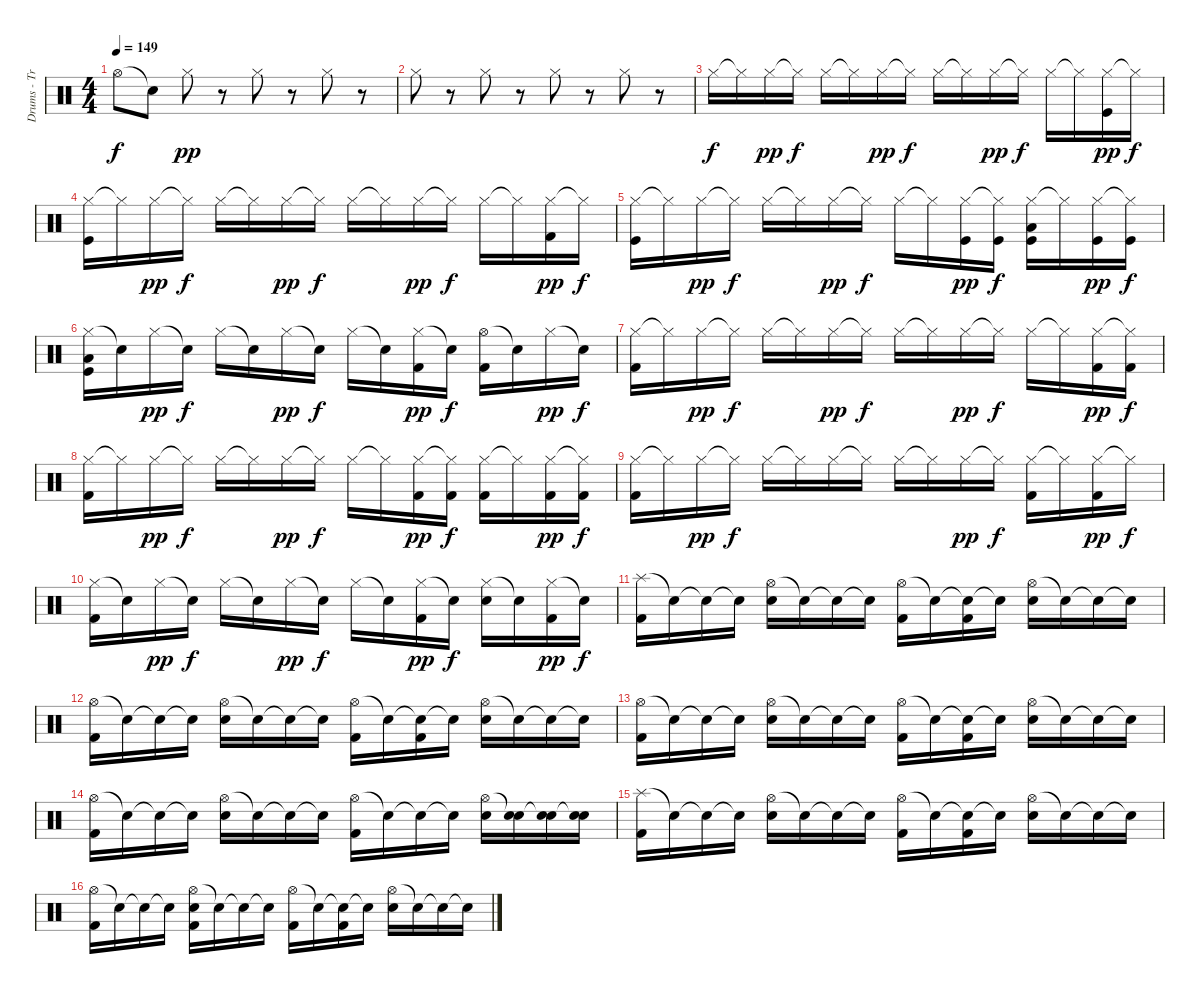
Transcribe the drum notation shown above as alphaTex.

\track ("Drums - Travis Barker" "Drums - Tr") {instrument percussion}
\staff {score}
\articulation defaults
\ts (4 4)
\tempo 149
\clef neutral
\ks c "Hi-Hat (open)".8{dy f} "Snare (hit)"{t}.8 "Hi-Hat (closed)".8{dy pp}
r.8 "Hi-Hat (closed)".8 r.8 "Hi-Hat (closed)".8 r.8 |
"Hi-Hat (closed)".8 r.8 "Hi-Hat (closed)".8 r.8 "Hi-Hat (closed)".8 r.8 "Hi-Hat (closed)".8 r.8 |
"Hi-Hat (closed)".16{dy f} "Hi-Hat (closed)"{t}.16 "Hi-Hat (closed)".16{dy pp} "Hi-Hat (closed)"{t}.16{dy f} "Hi-Hat (closed)".16 "Hi-Hat (closed)"{t}.16 "Hi-Hat (closed)".16{dy pp} "Hi-Hat (closed)"{t}.16{dy f} "Hi-Hat (closed)".16 "Hi-Hat (closed)"{t}.16 "Hi-Hat (closed)".16{dy pp} "Hi-Hat (closed)"{t}.16{dy f} "Hi-Hat (closed)".16 "Hi-Hat (closed)"{t}.16 ("Hi-Hat (closed)" "Kick (hit)").16{dy pp} "Hi-Hat (closed)"{t}.16{dy f} |
("Hi-Hat (closed)" "Kick (hit)").16 "Hi-Hat (closed)"{t}.16 "Hi-Hat (closed)".16{dy pp} "Hi-Hat (closed)"{t}.16{dy f} "Hi-Hat (closed)".16 "Hi-Hat (closed)"{t}.16 "Hi-Hat (closed)".16{dy pp} "Hi-Hat (closed)"{t}.16{dy f} "Hi-Hat (closed)".16 "Hi-Hat (closed)"{t}.16 "Hi-Hat (closed)".16{dy pp} "Hi-Hat (closed)"{t}.16{dy f} "Hi-Hat (closed)".16 "Hi-Hat (closed)"{t}.16 ("Hi-Hat (closed)" "Kick (hit) 2").16{dy pp} "Hi-Hat (closed)"{t}.16{dy f} |
("Hi-Hat (closed)" "Kick (hit)").16 "Hi-Hat (closed)"{t}.16 "Hi-Hat (closed)".16{dy pp} "Hi-Hat (closed)"{t}.16{dy f} "Hi-Hat (closed)".16 "Hi-Hat (closed)"{t}.16 "Hi-Hat (closed)".16{dy pp} "Hi-Hat (closed)"{t}.16{dy f} "Hi-Hat (closed)".16 "Hi-Hat (closed)"{t}.16 ("Hi-Hat (closed)" "Kick (hit)").16{dy pp} ("Hi-Hat (closed)"{t} "Kick (hit)").16{dy f} ("Hi-Hat (closed)" "Low Tom (hit)" "Kick (hit)").16 "Hi-Hat (closed)"{t}.16 ("Hi-Hat (closed)" "Kick (hit)").16{dy pp} ("Hi-Hat (closed)"{t} "Kick (hit)").16{dy f} |
("Hi-Hat (closed)" "Low Tom (hit)" "Kick (hit)").16 "Snare (hit)"{t}.16 "Hi-Hat (closed)".16{dy pp} "Snare (hit)"{t}.16{dy f} "Hi-Hat (closed)".16 "Snare (hit)"{t}.16 "Hi-Hat (closed)".16{dy pp} "Snare (hit)"{t}.16{dy f} "Hi-Hat (closed)".16 "Snare (hit)"{t}.16 ("Hi-Hat (closed)" "Kick (hit) 2").16{dy pp} "Snare (hit)"{t}.16{dy f} ("Hi-Hat (open)" "Kick (hit) 2").16 "Snare (hit)"{t}.16 "Hi-Hat (closed)".16{dy pp} "Snare (hit)"{t}.16{dy f} |
("Hi-Hat (closed)" "Kick (hit) 2").16 "Hi-Hat (closed)"{t}.16 "Hi-Hat (closed)".16{dy pp} "Hi-Hat (closed)"{t}.16{dy f} "Hi-Hat (closed)".16 "Hi-Hat (closed)"{t}.16 "Hi-Hat (closed)".16{dy pp} "Hi-Hat (closed)"{t}.16{dy f} "Hi-Hat (closed)".16 "Hi-Hat (closed)"{t}.16 "Hi-Hat (closed)".16{dy pp} "Hi-Hat (closed)"{t}.16{dy f} "Hi-Hat (closed)".16 "Hi-Hat (closed)"{t}.16 ("Hi-Hat (closed)" "Kick (hit) 2").16{dy pp} ("Hi-Hat (closed)"{t} "Kick (hit) 2").16{dy f} |
("Hi-Hat (closed)" "Kick (hit) 2").16 "Hi-Hat (closed)"{t}.16 "Hi-Hat (closed)".16{dy pp} "Hi-Hat (closed)"{t}.16{dy f} "Hi-Hat (closed)".16 "Hi-Hat (closed)"{t}.16 "Hi-Hat (closed)".16{dy pp} "Hi-Hat (closed)"{t}.16{dy f} "Hi-Hat (closed)".16 "Hi-Hat (closed)"{t}.16 ("Hi-Hat (closed)" "Kick (hit) 2").16{dy pp} ("Hi-Hat (closed)"{t} "Kick (hit) 2").16{dy f} ("Hi-Hat (closed)" "Kick (hit) 2").16 "Hi-Hat (closed)"{t}.16 ("Hi-Hat (closed)" "Kick (hit) 2").16{dy pp} ("Hi-Hat (closed)"{t} "Kick (hit) 2").16{dy f} |
("Hi-Hat (closed)" "Kick (hit) 2").16 "Hi-Hat (closed)"{t}.16 "Hi-Hat (closed)".16{dy pp} "Hi-Hat (closed)"{t}.16{dy f} "Hi-Hat (closed)".16 "Hi-Hat (closed)"{t}.16 "Hi-Hat (closed)".16 "Hi-Hat (closed)"{t}.16 "Hi-Hat (closed)".16 "Hi-Hat (closed)"{t}.16 "Hi-Hat (closed)".16{dy pp} "Hi-Hat (closed)"{t}.16{dy f} ("Hi-Hat (closed)" "Kick (hit) 2").16 "Hi-Hat (closed)"{t}.16 ("Hi-Hat (closed)" "Kick (hit) 2").16{dy pp} "Hi-Hat (closed)"{t}.16{dy f} |
("Hi-Hat (closed)" "Kick (hit) 2").16 "Snare (hit)"{t}.16 "Hi-Hat (closed)".16{dy pp} "Snare (hit)"{t}.16{dy f} "Hi-Hat (closed)".16 "Snare (hit)"{t}.16 "Hi-Hat (closed)".16{dy pp} "Snare (hit)"{t}.16{dy f} "Hi-Hat (closed)".16 "Snare (hit)"{t}.16 ("Hi-Hat (closed)" "Kick (hit) 2").16{dy pp} "Snare (hit)"{t}.16{dy f} ("Hi-Hat (closed)" "Electric Snare (hit)").16 "Snare (hit)"{t}.16 ("Hi-Hat (closed)" "Kick (hit) 2").16{dy pp} "Snare (hit)"{t}.16{dy f} |
("Splash (hit)" "Kick (hit) 2").16 "Snare (hit)"{t}.16 "Snare (hit)"{t}.16 "Snare (hit)"{t}.16 ("Hi-Hat (open)" "Electric Snare (hit)").16 "Snare (hit)"{t}.16 "Snare (hit)"{t}.16 "Snare (hit)"{t}.16 ("Hi-Hat (open)" "Kick (hit) 2").16 "Snare (hit)"{t}.16 ("Snare (hit)"{t} "Kick (hit) 2").16 "Snare (hit)"{t}.16 ("Hi-Hat (open)" "Electric Snare (hit)").16 "Snare (hit)"{t}.16 "Snare (hit)"{t}.16 "Snare (hit)"{t}.16 |
("Hi-Hat (open)" "Kick (hit) 2").16 "Snare (hit)"{t}.16 "Snare (hit)"{t}.16 "Snare (hit)"{t}.16 ("Hi-Hat (open)" "Electric Snare (hit)").16 "Snare (hit)"{t}.16 "Snare (hit)"{t}.16 "Snare (hit)"{t}.16 ("Hi-Hat (open)" "Kick (hit) 2").16 "Snare (hit)"{t}.16 ("Snare (hit)"{t} "Kick (hit) 2").16 "Snare (hit)"{t}.16 ("Hi-Hat (open)" "Electric Snare (hit)").16 "Snare (hit)"{t}.16 "Snare (hit)"{t}.16 "Snare (hit)"{t}.16 |
("Hi-Hat (open)" "Kick (hit) 2").16 "Snare (hit)"{t}.16 "Snare (hit)"{t}.16 "Snare (hit)"{t}.16 ("Hi-Hat (open)" "Electric Snare (hit)").16 "Snare (hit)"{t}.16 "Snare (hit)"{t}.16 "Snare (hit)"{t}.16 ("Hi-Hat (open)" "Kick (hit) 2").16 "Snare (hit)"{t}.16 ("Snare (hit)"{t} "Kick (hit) 2").16 "Snare (hit)"{t}.16 ("Hi-Hat (open)" "Electric Snare (hit)").16 "Snare (hit)"{t}.16 "Snare (hit)"{t}.16 "Snare (hit)"{t}.16 |
("Hi-Hat (open)" "Kick (hit) 2").16 "Snare (hit)"{t}.16 "Snare (hit)"{t}.16 "Snare (hit)"{t}.16 ("Hi-Hat (open)" "Electric Snare (hit)").16 "Snare (hit)"{t}.16 "Snare (hit)"{t}.16 "Snare (hit)"{t}.16 ("Hi-Hat (open)" "Kick (hit) 2").16 "Snare (hit)"{t}.16 "Snare (hit)"{t}.16 "Snare (hit)"{t}.16 ("Hi-Hat (open)" "Electric Snare (hit)").16 ("Snare (hit)"{t} "Electric Snare (hit)").16 ("Snare (hit)"{t} "Electric Snare (hit)").16 ("Snare (hit)"{t} "Electric Snare (hit)").16 |
("Splash (hit)" "Kick (hit) 2").16 "Snare (hit)"{t}.16 "Snare (hit)"{t}.16 "Snare (hit)"{t}.16 ("Hi-Hat (open)" "Electric Snare (hit)").16 "Snare (hit)"{t}.16 "Snare (hit)"{t}.16 "Snare (hit)"{t}.16 ("Hi-Hat (open)" "Kick (hit) 2").16 "Snare (hit)"{t}.16 ("Snare (hit)"{t} "Kick (hit) 2").16 "Snare (hit)"{t}.16 ("Hi-Hat (open)" "Electric Snare (hit)").16 "Snare (hit)"{t}.16 "Snare (hit)"{t}.16 "Snare (hit)"{t}.16 |
("Hi-Hat (open)" "Kick (hit) 2").16 "Snare (hit)"{t}.16 "Snare (hit)"{t}.16 "Snare (hit)"{t}.16 ("Hi-Hat (open)" "Electric Snare (hit)" "Kick (hit) 2").16 "Snare (hit)"{t}.16 "Snare (hit)"{t}.16 "Snare (hit)"{t}.16 ("Hi-Hat (open)" "Kick (hit) 2").16 "Snare (hit)"{t}.16 ("Snare (hit)"{t} "Kick (hit) 2").16 "Snare (hit)"{t}.16 ("Hi-Hat (open)" "Electric Snare (hit)").16 "Snare (hit)"{t}.16 "Snare (hit)"{t}.16 "Snare (hit)"{t}.16
